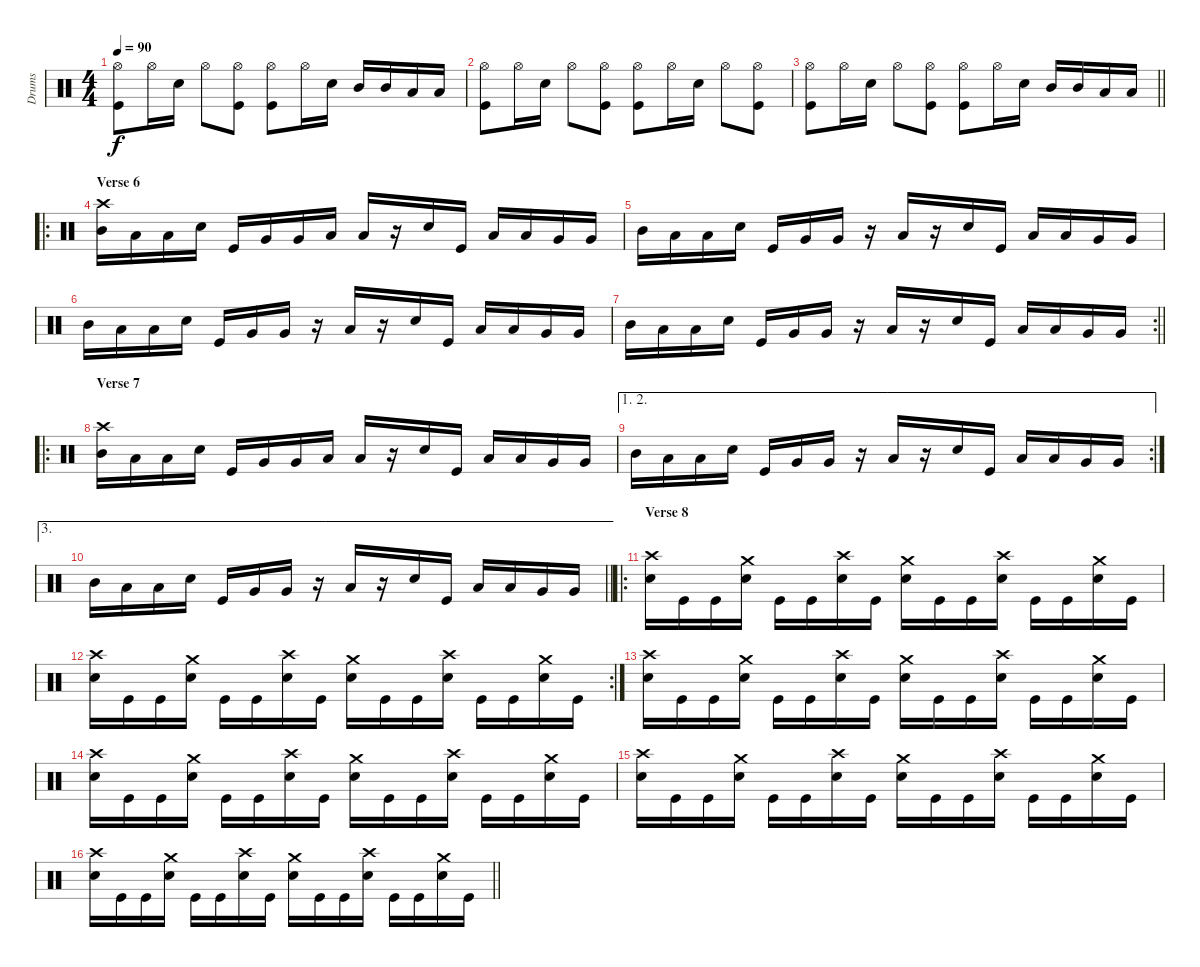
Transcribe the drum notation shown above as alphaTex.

\track ("Drums" "Drums") {instrument percussion}
\staff {score}
\articulation defaults
\ts (4 4)
\tempo 90
\clef neutral
\ks c
("Hi-Hat (open)" "Kick (hit)").8{dy f} "Hi-Hat (open)".16 "Snare (hit) 2".16 "Hi-Hat (open)".8 ("Hi-Hat (open)" "Kick (hit)").8 ("Hi-Hat (open)" "Kick (hit)").8 "Hi-Hat (open)".16 "Snare (hit) 2".16 "Mid Tom (hit)".16 "Mid Tom (hit)".16 "Low Tom (hit)".16 "Low Tom (hit)".16 |
("Hi-Hat (open)" "Kick (hit)").8 "Hi-Hat (open)".16 "Snare (hit) 2".16 "Hi-Hat (open)".8 ("Hi-Hat (open)" "Kick (hit)").8 ("Hi-Hat (open)" "Kick (hit)").8 "Hi-Hat (open)".16 "Snare (hit) 2".16 "Hi-Hat (open)".8 ("Hi-Hat (open)" "Kick (hit)").8 |
\barLineRight lightlight
("Hi-Hat (open)" "Kick (hit)").8 "Hi-Hat (open)".16 "Snare (hit) 2".16 "Hi-Hat (open)".8 ("Hi-Hat (open)" "Kick (hit)").8 ("Hi-Hat (open)" "Kick (hit)").8 "Hi-Hat (open)".16 "Snare (hit) 2".16 "Mid Tom (hit)".16 "Mid Tom (hit)".16 "Low Tom (hit)".16 "Low Tom (hit)".16 |
\ro
\section ("" "Verse 6")
("Crash high (hit)" "Mid Tom (hit)").16 "Low Tom (hit)".16 "Low Tom (hit)".16 "Snare (hit) 2".16 "Kick (hit)".16 "Very Low Tom (hit)".16 "Very Low Tom (hit)".16 "Low Floor Tom (hit)".16 "Low Floor Tom (hit)".16 r.16 "Snare (hit) 2".16 "Kick (hit)".16 "Low Tom (hit)".16 "Low Tom (hit)".16 "Very Low Tom (hit)".16 "Very Low Tom (hit)".16 |
"Mid Tom (hit)".16 "Low Tom (hit)".16 "Low Tom (hit)".16 "Snare (hit) 2".16 "Kick (hit)".16 "Very Low Tom (hit)".16 "Very Low Tom (hit)".16 r.16 "Low Floor Tom (hit)".16 r.16 "Snare (hit) 2".16 "Kick (hit)".16 "Low Tom (hit)".16 "Low Tom (hit)".16 "Very Low Tom (hit)".16 "Very Low Tom (hit)".16 |
"Mid Tom (hit)".16 "Low Tom (hit)".16 "Low Tom (hit)".16 "Snare (hit) 2".16 "Kick (hit)".16 "Very Low Tom (hit)".16 "Very Low Tom (hit)".16 r.16 "Low Floor Tom (hit)".16 r.16 "Snare (hit) 2".16 "Kick (hit)".16 "Low Tom (hit)".16 "Low Tom (hit)".16 "Very Low Tom (hit)".16 "Very Low Tom (hit)".16 |
\rc 2
\barLineRight lightlight "Mid Tom (hit)".16 "Low Tom (hit)".16 "Low Tom (hit)".16 "Snare (hit) 2".16 "Kick (hit)".16 "Very Low Tom (hit)".16 "Very Low Tom (hit)".16
r.16 "Low Floor Tom (hit)".16 r.16 "Snare (hit) 2".16 "Kick (hit)".16 "Low Tom (hit)".16 "Low Tom (hit)".16 "Very Low Tom (hit)".16 "Very Low Tom (hit)".16 |
\ro
\section ("" "Verse 7")
("Crash high (hit)" "Mid Tom (hit)").16 "Low Tom (hit)".16 "Low Tom (hit)".16 "Snare (hit) 2".16 "Kick (hit)".16 "Very Low Tom (hit)".16 "Very Low Tom (hit)".16 "Low Floor Tom (hit)".16 "Low Floor Tom (hit)".16 r.16 "Snare (hit) 2".16 "Kick (hit)".16 "Low Tom (hit)".16 "Low Tom (hit)".16 "Very Low Tom (hit)".16 "Very Low Tom (hit)".16 |
\ae (1 2)
\rc 2 "Mid Tom (hit)".16 "Low Tom (hit)".16 "Low Tom (hit)".16 "Snare (hit) 2".16 "Kick (hit)".16 "Very Low Tom (hit)".16 "Very Low Tom (hit)".16
r.16 "Low Floor Tom (hit)".16 r.16 "Snare (hit) 2".16 "Kick (hit)".16 "Low Tom (hit)".16 "Low Tom (hit)".16 "Very Low Tom (hit)".16 "Very Low Tom (hit)".16 |
\ae 3
\barLineRight lightlight "Mid Tom (hit)".16 "Low Tom (hit)".16 "Low Tom (hit)".16 "Snare (hit) 2".16 "Kick (hit)".16 "Very Low Tom (hit)".16 "Very Low Tom (hit)".16
r.16 "Low Floor Tom (hit)".16 r.16 "Snare (hit) 2".16 "Kick (hit)".16 "Low Tom (hit)".16 "Low Tom (hit)".16 "Very Low Tom (hit)".16 "Very Low Tom (hit)".16 |
\ro
\section ("" "Verse 8")
("Crash high (hit)" "Snare (hit) 2").16 "Kick (hit)".16 "Kick (hit)".16 ("Crash medium (hit)" "Snare (hit) 2").16 "Kick (hit)".16 "Kick (hit)".16 ("Crash high (hit)" "Snare (hit) 2").16 "Kick (hit)".16 ("Crash medium (hit)" "Snare (hit) 2").16 "Kick (hit)".16 "Kick (hit)".16 ("Crash high (hit)" "Snare (hit) 2").16 "Kick (hit)".16 "Kick (hit)".16 ("Crash medium (hit)" "Snare (hit) 2").16 "Kick (hit)".16 |
\rc 2
("Crash high (hit)" "Snare (hit) 2").16 "Kick (hit)".16 "Kick (hit)".16 ("Crash medium (hit)" "Snare (hit) 2").16 "Kick (hit)".16 "Kick (hit)".16 ("Crash high (hit)" "Snare (hit) 2").16 "Kick (hit)".16 ("Crash medium (hit)" "Snare (hit) 2").16 "Kick (hit)".16 "Kick (hit)".16 ("Crash high (hit)" "Snare (hit) 2").16 "Kick (hit)".16 "Kick (hit)".16 ("Crash medium (hit)" "Snare (hit) 2").16 "Kick (hit)".16 |
("Crash high (hit)" "Snare (hit) 2").16 "Kick (hit)".16 "Kick (hit)".16 ("Crash medium (hit)" "Snare (hit) 2").16 "Kick (hit)".16 "Kick (hit)".16 ("Crash high (hit)" "Snare (hit) 2").16 "Kick (hit)".16 ("Crash medium (hit)" "Snare (hit) 2").16 "Kick (hit)".16 "Kick (hit)".16 ("Crash high (hit)" "Snare (hit) 2").16 "Kick (hit)".16 "Kick (hit)".16 ("Crash medium (hit)" "Snare (hit) 2").16 "Kick (hit)".16 |
("Crash high (hit)" "Snare (hit) 2").16 "Kick (hit)".16 "Kick (hit)".16 ("Crash medium (hit)" "Snare (hit) 2").16 "Kick (hit)".16 "Kick (hit)".16 ("Crash high (hit)" "Snare (hit) 2").16 "Kick (hit)".16 ("Crash medium (hit)" "Snare (hit) 2").16 "Kick (hit)".16 "Kick (hit)".16 ("Crash high (hit)" "Snare (hit) 2").16 "Kick (hit)".16 "Kick (hit)".16 ("Crash medium (hit)" "Snare (hit) 2").16 "Kick (hit)".16 |
("Crash high (hit)" "Snare (hit) 2").16 "Kick (hit)".16 "Kick (hit)".16 ("Crash medium (hit)" "Snare (hit) 2").16 "Kick (hit)".16 "Kick (hit)".16 ("Crash high (hit)" "Snare (hit) 2").16 "Kick (hit)".16 ("Crash medium (hit)" "Snare (hit) 2").16 "Kick (hit)".16 "Kick (hit)".16 ("Crash high (hit)" "Snare (hit) 2").16 "Kick (hit)".16 "Kick (hit)".16 ("Crash medium (hit)" "Snare (hit) 2").16 "Kick (hit)".16 |
\barLineRight lightlight
("Crash high (hit)" "Snare (hit) 2").16 "Kick (hit)".16 "Kick (hit)".16 ("Crash medium (hit)" "Snare (hit) 2").16 "Kick (hit)".16 "Kick (hit)".16 ("Crash high (hit)" "Snare (hit) 2").16 "Kick (hit)".16 ("Crash medium (hit)" "Snare (hit) 2").16 "Kick (hit)".16 "Kick (hit)".16 ("Crash high (hit)" "Snare (hit) 2").16 "Kick (hit)".16 "Kick (hit)".16 ("Crash medium (hit)" "Snare (hit) 2").16 "Kick (hit)".16
